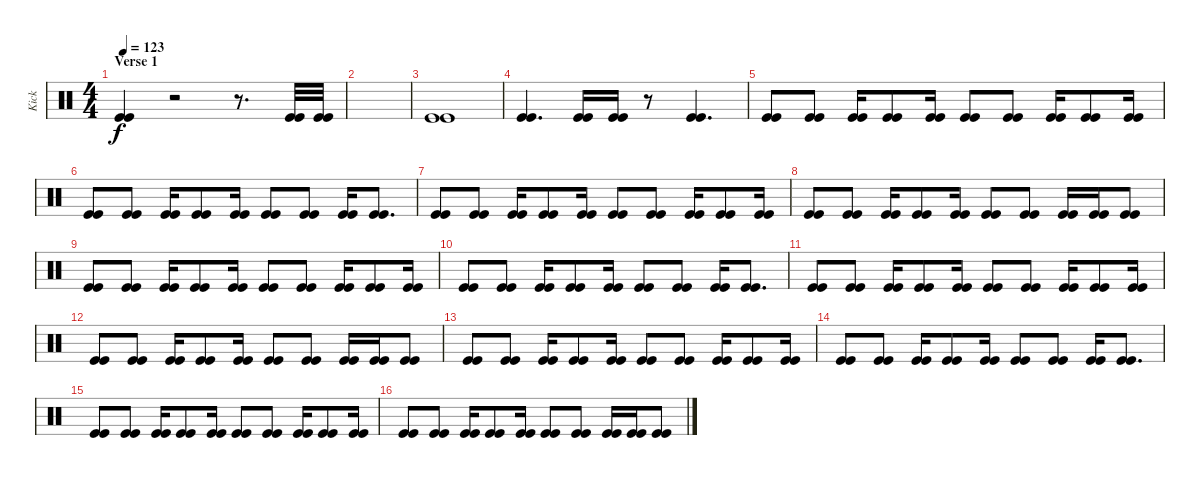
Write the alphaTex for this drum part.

\track ("Kick" "Kick") {instrument percussion}
\staff {score}
\articulation defaults
\ts (4 4)
\section ("" "Verse 1")
\tempo 123
\clef neutral
\ks c
("Kick (hit)" "Kick (hit)").4{dy f} r.2 r.8{d} ("Kick (hit)" "Kick (hit)").32 ("Kick (hit)" "Kick (hit)").32 |
|
("Kick (hit)" "Kick (hit)").1 |
("Kick (hit)" "Kick (hit)").4{d} ("Kick (hit)" "Kick (hit)").16 ("Kick (hit)" "Kick (hit)").16 r.8 ("Kick (hit)" "Kick (hit)").4{d} |
("Kick (hit)" "Kick (hit)").8 ("Kick (hit)" "Kick (hit)").8 ("Kick (hit)" "Kick (hit)").16 ("Kick (hit)" "Kick (hit)").8 ("Kick (hit)" "Kick (hit)").16 ("Kick (hit)" "Kick (hit)").8 ("Kick (hit)" "Kick (hit)").8 ("Kick (hit)" "Kick (hit)").16 ("Kick (hit)" "Kick (hit)").8 ("Kick (hit)" "Kick (hit)").16 |
("Kick (hit)" "Kick (hit)").8 ("Kick (hit)" "Kick (hit)").8 ("Kick (hit)" "Kick (hit)").16 ("Kick (hit)" "Kick (hit)").8 ("Kick (hit)" "Kick (hit)").16 ("Kick (hit)" "Kick (hit)").8 ("Kick (hit)" "Kick (hit)").8 ("Kick (hit)" "Kick (hit)").16 ("Kick (hit)" "Kick (hit)").8{d} |
("Kick (hit)" "Kick (hit)").8 ("Kick (hit)" "Kick (hit)").8 ("Kick (hit)" "Kick (hit)").16 ("Kick (hit)" "Kick (hit)").8 ("Kick (hit)" "Kick (hit)").16 ("Kick (hit)" "Kick (hit)").8 ("Kick (hit)" "Kick (hit)").8 ("Kick (hit)" "Kick (hit)").16 ("Kick (hit)" "Kick (hit)").8 ("Kick (hit)" "Kick (hit)").16 |
("Kick (hit)" "Kick (hit)").8 ("Kick (hit)" "Kick (hit)").8 ("Kick (hit)" "Kick (hit)").16 ("Kick (hit)" "Kick (hit)").8 ("Kick (hit)" "Kick (hit)").16 ("Kick (hit)" "Kick (hit)").8 ("Kick (hit)" "Kick (hit)").8 ("Kick (hit)" "Kick (hit)").16 ("Kick (hit)" "Kick (hit)").16 ("Kick (hit)" "Kick (hit)").8 |
("Kick (hit)" "Kick (hit)").8 ("Kick (hit)" "Kick (hit)").8 ("Kick (hit)" "Kick (hit)").16 ("Kick (hit)" "Kick (hit)").8 ("Kick (hit)" "Kick (hit)").16 ("Kick (hit)" "Kick (hit)").8 ("Kick (hit)" "Kick (hit)").8 ("Kick (hit)" "Kick (hit)").16 ("Kick (hit)" "Kick (hit)").8 ("Kick (hit)" "Kick (hit)").16 |
("Kick (hit)" "Kick (hit)").8 ("Kick (hit)" "Kick (hit)").8 ("Kick (hit)" "Kick (hit)").16 ("Kick (hit)" "Kick (hit)").8 ("Kick (hit)" "Kick (hit)").16 ("Kick (hit)" "Kick (hit)").8 ("Kick (hit)" "Kick (hit)").8 ("Kick (hit)" "Kick (hit)").16 ("Kick (hit)" "Kick (hit)").8{d} |
("Kick (hit)" "Kick (hit)").8 ("Kick (hit)" "Kick (hit)").8 ("Kick (hit)" "Kick (hit)").16 ("Kick (hit)" "Kick (hit)").8 ("Kick (hit)" "Kick (hit)").16 ("Kick (hit)" "Kick (hit)").8 ("Kick (hit)" "Kick (hit)").8 ("Kick (hit)" "Kick (hit)").16 ("Kick (hit)" "Kick (hit)").8 ("Kick (hit)" "Kick (hit)").16 |
("Kick (hit)" "Kick (hit)").8 ("Kick (hit)" "Kick (hit)").8 ("Kick (hit)" "Kick (hit)").16 ("Kick (hit)" "Kick (hit)").8 ("Kick (hit)" "Kick (hit)").16 ("Kick (hit)" "Kick (hit)").8 ("Kick (hit)" "Kick (hit)").8 ("Kick (hit)" "Kick (hit)").16 ("Kick (hit)" "Kick (hit)").16 ("Kick (hit)" "Kick (hit)").8 |
("Kick (hit)" "Kick (hit)").8 ("Kick (hit)" "Kick (hit)").8 ("Kick (hit)" "Kick (hit)").16 ("Kick (hit)" "Kick (hit)").8 ("Kick (hit)" "Kick (hit)").16 ("Kick (hit)" "Kick (hit)").8 ("Kick (hit)" "Kick (hit)").8 ("Kick (hit)" "Kick (hit)").16 ("Kick (hit)" "Kick (hit)").8 ("Kick (hit)" "Kick (hit)").16 |
("Kick (hit)" "Kick (hit)").8 ("Kick (hit)" "Kick (hit)").8 ("Kick (hit)" "Kick (hit)").16 ("Kick (hit)" "Kick (hit)").8 ("Kick (hit)" "Kick (hit)").16 ("Kick (hit)" "Kick (hit)").8 ("Kick (hit)" "Kick (hit)").8 ("Kick (hit)" "Kick (hit)").16 ("Kick (hit)" "Kick (hit)").8{d} |
("Kick (hit)" "Kick (hit)").8 ("Kick (hit)" "Kick (hit)").8 ("Kick (hit)" "Kick (hit)").16 ("Kick (hit)" "Kick (hit)").8 ("Kick (hit)" "Kick (hit)").16 ("Kick (hit)" "Kick (hit)").8 ("Kick (hit)" "Kick (hit)").8 ("Kick (hit)" "Kick (hit)").16 ("Kick (hit)" "Kick (hit)").8 ("Kick (hit)" "Kick (hit)").16 |
("Kick (hit)" "Kick (hit)").8 ("Kick (hit)" "Kick (hit)").8 ("Kick (hit)" "Kick (hit)").16 ("Kick (hit)" "Kick (hit)").8 ("Kick (hit)" "Kick (hit)").16 ("Kick (hit)" "Kick (hit)").8 ("Kick (hit)" "Kick (hit)").8 ("Kick (hit)" "Kick (hit)").16 ("Kick (hit)" "Kick (hit)").16 ("Kick (hit)" "Kick (hit)").8
